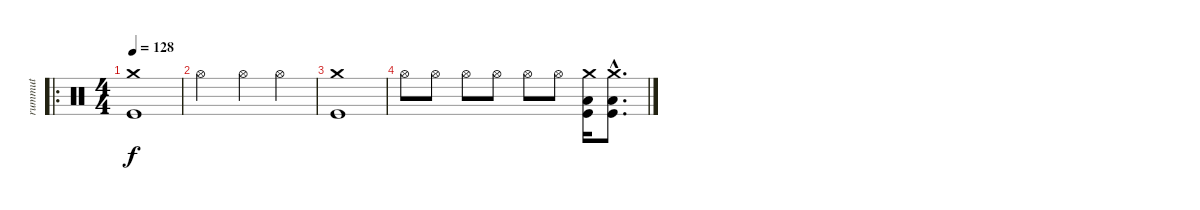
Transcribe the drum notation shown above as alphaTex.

\track ("rummut" "rummut") {instrument percussion}
\staff {score}
\articulation defaults
\ro
\ts (4 4)
\tempo 128
\clef neutral
\ks c
("Crash medium (hit)" "Kick (hit)").1{dy f} |
"Hi-Hat (open)".2 "Hi-Hat (open)".4 "Hi-Hat (open)".4 |
("Crash medium (hit)" "Kick (hit)").1 |
"Hi-Hat (open)".8 "Hi-Hat (open)".8 "Hi-Hat (open)".8 "Hi-Hat (open)".8 "Hi-Hat (open)".8 "Hi-Hat (open)".8 ("Crash medium (hit)" "Kick (hit)" "Low Floor Tom (hit)").16 ("Crash medium (hit)"{hac} "Kick (hit)"{hac} "Low Floor Tom (hit)"{hac}).8{d}
